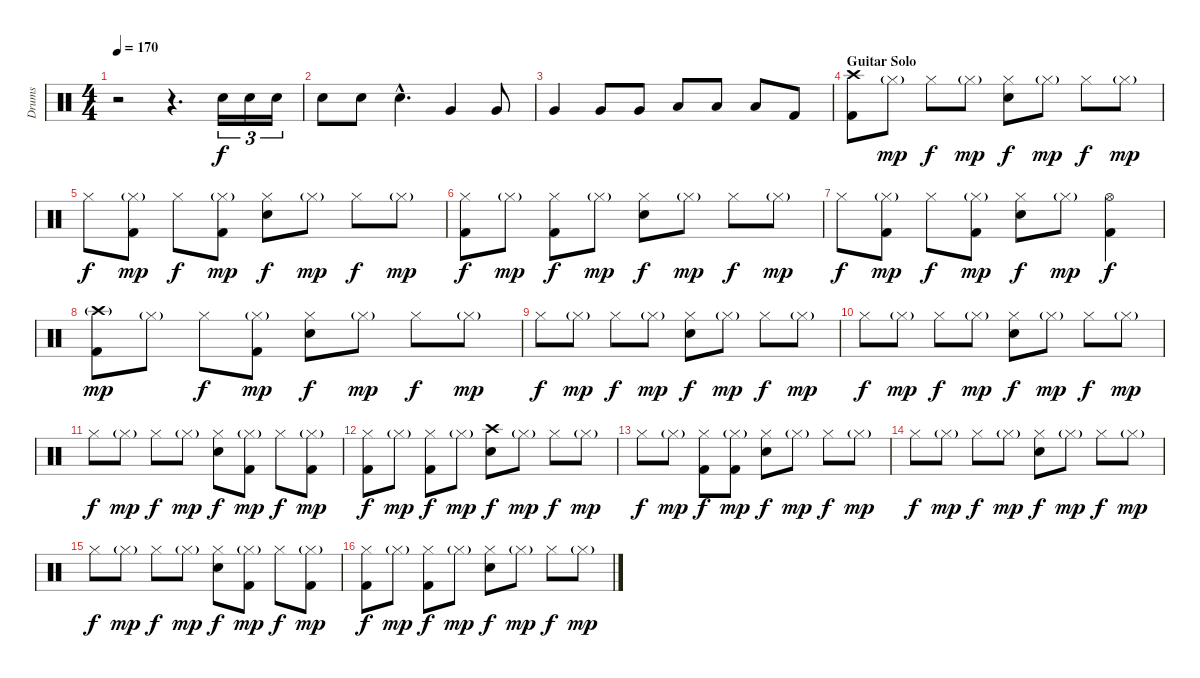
\track ("Drums" "Drums") {instrument percussion}
\staff {score}
\articulation defaults
\ts (4 4)
\tempo 170
\clef neutral
\ks c
r.2{dy f} r.4{d} "Snare (hit) 2".16{tu (3 2)} "Snare (hit) 2".16{tu (3 2)} "Snare (hit) 2".16{tu (3 2)} |
"Snare (hit) 2".8 "Snare (hit) 2".8 "Snare (hit) 2"{hac}.4{d} "Very Low Tom (hit)".4 "Very Low Tom (hit)".8 |
"Very Low Tom (hit)".4 "Very Low Tom (hit)".8 "Very Low Tom (hit)".8 "Low Floor Tom (hit)".8 "Low Floor Tom (hit)".8 "Low Floor Tom (hit)".8 "Kick (hit) 2".8 |
\section ("" "Guitar Solo")
("Crash high (hit)" "Kick (hit) 2").8 "Hi-Hat (closed)"{g}.8{dy mp} "Hi-Hat (closed)".8{dy f} "Hi-Hat (closed)"{g}.8{dy mp} ("Hi-Hat (closed)" "Snare (hit) 2").8{dy f} "Hi-Hat (closed)"{g}.8{dy mp} "Hi-Hat (closed)".8{dy f} "Hi-Hat (closed)"{g}.8{dy mp} |
"Hi-Hat (closed)".8{dy f} ("Hi-Hat (closed)"{g} "Kick (hit) 2").8{dy mp} "Hi-Hat (closed)".8{dy f} ("Hi-Hat (closed)"{g} "Kick (hit) 2").8{dy mp} ("Hi-Hat (closed)" "Snare (hit) 2").8{dy f} "Hi-Hat (closed)"{g}.8{dy mp} "Hi-Hat (closed)".8{dy f} "Hi-Hat (closed)"{g}.8{dy mp} |
("Hi-Hat (closed)" "Kick (hit) 2").8{dy f} "Hi-Hat (closed)"{g}.8{dy mp} ("Hi-Hat (closed)" "Kick (hit) 2").8{dy f} "Hi-Hat (closed)"{g}.8{dy mp} ("Hi-Hat (closed)" "Snare (hit) 2").8{dy f} "Hi-Hat (closed)"{g}.8{dy mp} "Hi-Hat (closed)".8{dy f} "Hi-Hat (closed)"{g}.8{dy mp} |
"Hi-Hat (closed)".8{dy f} ("Hi-Hat (closed)"{g} "Kick (hit) 2").8{dy mp} "Hi-Hat (closed)".8{dy f} ("Hi-Hat (closed)"{g} "Kick (hit) 2").8{dy mp} ("Hi-Hat (closed)" "Snare (hit) 2").8{dy f} "Hi-Hat (closed)"{g}.8{dy mp} ("Hi-Hat (open)" "Kick (hit) 2").4{dy f} |
("Crash high (hit)"{g} "Kick (hit) 2").8{dy mp} "Hi-Hat (closed)"{g}.8 "Hi-Hat (closed)".8{dy f} ("Hi-Hat (closed)"{g} "Kick (hit) 2").8{dy mp} ("Hi-Hat (closed)" "Snare (hit) 2").8{dy f} "Hi-Hat (closed)"{g}.8{dy mp} "Hi-Hat (closed)".8{dy f} "Hi-Hat (closed)"{g}.8{dy mp} |
"Hi-Hat (closed)".8{dy f} "Hi-Hat (closed)"{g}.8{dy mp} "Hi-Hat (closed)".8{dy f} "Hi-Hat (closed)"{g}.8{dy mp} ("Hi-Hat (closed)" "Snare (hit) 2").8{dy f} "Hi-Hat (closed)"{g}.8{dy mp} "Hi-Hat (closed)".8{dy f} "Hi-Hat (closed)"{g}.8{dy mp} |
"Hi-Hat (closed)".8{dy f} "Hi-Hat (closed)"{g}.8{dy mp} "Hi-Hat (closed)".8{dy f} "Hi-Hat (closed)"{g}.8{dy mp} ("Hi-Hat (closed)" "Snare (hit) 2").8{dy f} "Hi-Hat (closed)"{g}.8{dy mp} "Hi-Hat (closed)".8{dy f} "Hi-Hat (closed)"{g}.8{dy mp} |
"Hi-Hat (closed)".8{dy f} "Hi-Hat (closed)"{g}.8{dy mp} "Hi-Hat (closed)".8{dy f} "Hi-Hat (closed)"{g}.8{dy mp} ("Hi-Hat (closed)" "Snare (hit) 2").8{dy f} ("Hi-Hat (closed)"{g} "Kick (hit) 2").8{dy mp} "Hi-Hat (closed)".8{dy f} ("Hi-Hat (closed)"{g} "Kick (hit) 2").8{dy mp} |
("Hi-Hat (closed)" "Kick (hit) 2").8{dy f} "Hi-Hat (closed)"{g}.8{dy mp} ("Hi-Hat (closed)" "Kick (hit) 2").8{dy f} "Hi-Hat (closed)"{g}.8{dy mp} ("Crash high (hit)" "Snare (hit) 2").8{dy f} "Hi-Hat (closed)"{g}.8{dy mp} "Hi-Hat (closed)".8{dy f} "Hi-Hat (closed)"{g}.8{dy mp} |
"Hi-Hat (closed)".8{dy f} "Hi-Hat (closed)"{g}.8{dy mp} ("Hi-Hat (closed)" "Kick (hit) 2").8{dy f} ("Hi-Hat (closed)"{g} "Kick (hit) 2").8{dy mp} ("Hi-Hat (closed)" "Snare (hit) 2").8{dy f} "Hi-Hat (closed)"{g}.8{dy mp} "Hi-Hat (closed)".8{dy f} "Hi-Hat (closed)"{g}.8{dy mp} |
"Hi-Hat (closed)".8{dy f} "Hi-Hat (closed)"{g}.8{dy mp} "Hi-Hat (closed)".8{dy f} "Hi-Hat (closed)"{g}.8{dy mp} ("Hi-Hat (closed)" "Snare (hit) 2").8{dy f} "Hi-Hat (closed)"{g}.8{dy mp} "Hi-Hat (closed)".8{dy f} "Hi-Hat (closed)"{g}.8{dy mp} |
"Hi-Hat (closed)".8{dy f} "Hi-Hat (closed)"{g}.8{dy mp} "Hi-Hat (closed)".8{dy f} "Hi-Hat (closed)"{g}.8{dy mp} ("Hi-Hat (closed)" "Snare (hit) 2").8{dy f} ("Hi-Hat (closed)"{g} "Kick (hit) 2").8{dy mp} "Hi-Hat (closed)".8{dy f} ("Hi-Hat (closed)"{g} "Kick (hit) 2").8{dy mp} |
("Hi-Hat (closed)" "Kick (hit) 2").8{dy f} "Hi-Hat (closed)"{g}.8{dy mp} ("Hi-Hat (closed)" "Kick (hit) 2").8{dy f} "Hi-Hat (closed)"{g}.8{dy mp} ("Hi-Hat (closed)" "Snare (hit) 2").8{dy f} "Hi-Hat (closed)"{g}.8{dy mp} "Hi-Hat (closed)".8{dy f} "Hi-Hat (closed)"{g}.8{dy mp}
